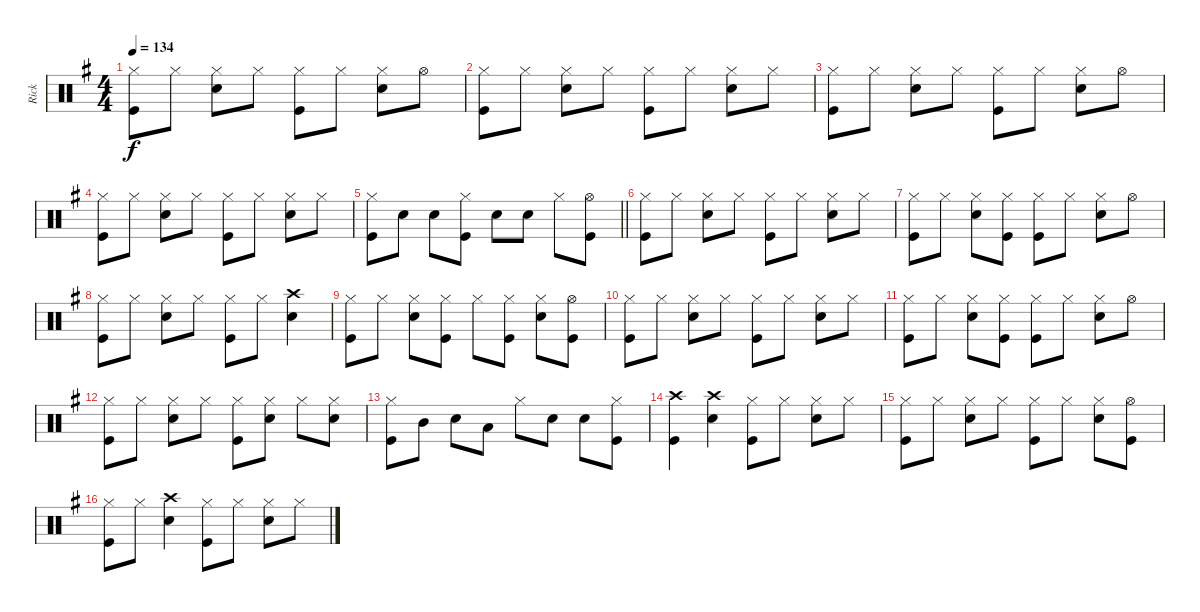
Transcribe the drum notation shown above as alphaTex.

\track ("Rick" "Rick") {instrument percussion}
\staff {score}
\articulation defaults
\ts (4 4)
\tempo 134
\clef neutral
\ks g
("Hi-Hat (closed)" "Kick (hit)").8{dy f} "Hi-Hat (closed)".8 ("Hi-Hat (closed)" "Snare (hit) 2").8 "Hi-Hat (closed)".8 ("Hi-Hat (closed)" "Kick (hit)").8 "Hi-Hat (closed)".8 ("Hi-Hat (closed)" "Snare (hit) 2").8 "Hi-Hat (open)".8 |
("Hi-Hat (closed)" "Kick (hit)").8 "Hi-Hat (closed)".8 ("Hi-Hat (closed)" "Snare (hit) 2").8 "Hi-Hat (closed)".8 ("Hi-Hat (closed)" "Kick (hit)").8 "Hi-Hat (closed)".8 ("Hi-Hat (closed)" "Snare (hit) 2").8 "Hi-Hat (closed)".8 |
("Hi-Hat (closed)" "Kick (hit)").8 "Hi-Hat (closed)".8 ("Hi-Hat (closed)" "Snare (hit) 2").8 "Hi-Hat (closed)".8 ("Hi-Hat (closed)" "Kick (hit)").8 "Hi-Hat (closed)".8 ("Hi-Hat (closed)" "Snare (hit) 2").8 "Hi-Hat (open)".8 |
("Hi-Hat (closed)" "Kick (hit)").8 "Hi-Hat (closed)".8 ("Hi-Hat (closed)" "Snare (hit) 2").8 "Hi-Hat (closed)".8 ("Hi-Hat (closed)" "Kick (hit)").8 "Hi-Hat (closed)".8 ("Hi-Hat (closed)" "Snare (hit) 2").8 "Hi-Hat (closed)".8 |
\barLineRight lightlight
("Hi-Hat (closed)" "Kick (hit)").8 "Snare (hit) 2".8 "Snare (hit) 2".8 ("Hi-Hat (closed)" "Kick (hit)").8 "Snare (hit) 2".8 "Snare (hit) 2".8 "Hi-Hat (closed)".8 ("Hi-Hat (open)" "Kick (hit)").8 |
("Hi-Hat (closed)" "Kick (hit)").8 "Hi-Hat (closed)".8 ("Hi-Hat (closed)" "Snare (hit) 2").8 "Hi-Hat (closed)".8 ("Hi-Hat (closed)" "Kick (hit)").8 "Hi-Hat (closed)".8 ("Hi-Hat (closed)" "Snare (hit) 2").8 "Hi-Hat (closed)".8 |
("Hi-Hat (closed)" "Kick (hit)").8 "Hi-Hat (closed)".8 ("Hi-Hat (closed)" "Snare (hit) 2").8 ("Hi-Hat (closed)" "Kick (hit)").8 ("Hi-Hat (closed)" "Kick (hit)").8 "Hi-Hat (closed)".8 ("Hi-Hat (closed)" "Snare (hit) 2").8 "Hi-Hat (open)".8 |
("Hi-Hat (closed)" "Kick (hit)").8 "Hi-Hat (closed)".8 ("Hi-Hat (closed)" "Snare (hit) 2").8 "Hi-Hat (closed)".8 ("Hi-Hat (closed)" "Kick (hit)").8 "Hi-Hat (closed)".8 ("Crash high (hit)" "Snare (hit) 2").4 |
("Hi-Hat (closed)" "Kick (hit)").8 "Hi-Hat (closed)".8 ("Hi-Hat (closed)" "Snare (hit) 2").8 ("Hi-Hat (closed)" "Kick (hit)").8 "Hi-Hat (closed)".8 ("Hi-Hat (closed)" "Kick (hit)").8 ("Hi-Hat (closed)" "Snare (hit) 2").8 ("Hi-Hat (open)" "Kick (hit)").8 |
("Hi-Hat (closed)" "Kick (hit)").8 "Hi-Hat (closed)".8 ("Hi-Hat (closed)" "Snare (hit) 2").8 "Hi-Hat (closed)".8 ("Hi-Hat (closed)" "Kick (hit)").8 "Hi-Hat (closed)".8 ("Hi-Hat (closed)" "Snare (hit) 2").8 "Hi-Hat (closed)".8 |
("Hi-Hat (closed)" "Kick (hit)").8 "Hi-Hat (closed)".8 ("Hi-Hat (closed)" "Snare (hit) 2").8 ("Hi-Hat (closed)" "Kick (hit)").8 ("Hi-Hat (closed)" "Kick (hit)").8 "Hi-Hat (closed)".8 ("Hi-Hat (closed)" "Snare (hit) 2").8 "Hi-Hat (open)".8 |
("Hi-Hat (closed)" "Kick (hit)").8 "Hi-Hat (closed)".8 ("Hi-Hat (closed)" "Snare (hit) 2").8 "Hi-Hat (closed)".8 ("Hi-Hat (closed)" "Kick (hit)").8 ("Hi-Hat (closed)" "Snare (hit) 2").8 "Hi-Hat (closed)".8 ("Hi-Hat (closed)" "Snare (hit) 2").8 |
("Hi-Hat (closed)" "Kick (hit)").8 "Mid Tom (hit)".8 "Snare (hit) 2".8 "Low Tom (hit)".8 "Hi-Hat (closed)".8 "Snare (hit) 2".8 "Snare (hit) 2".8 ("Hi-Hat (closed)" "Kick (hit)").8 |
("Crash high (hit)" "Kick (hit)").4 ("Crash high (hit)" "Snare (hit) 2").4 ("Hi-Hat (closed)" "Kick (hit)").8 "Hi-Hat (closed)".8 ("Hi-Hat (closed)" "Snare (hit) 2").8 "Hi-Hat (closed)".8 |
("Hi-Hat (closed)" "Kick (hit)").8 "Hi-Hat (closed)".8 ("Hi-Hat (closed)" "Snare (hit) 2").8 "Hi-Hat (closed)".8 ("Hi-Hat (closed)" "Kick (hit)").8 "Hi-Hat (closed)".8 ("Hi-Hat (closed)" "Snare (hit) 2").8 ("Hi-Hat (open)" "Kick (hit)").8 |
("Hi-Hat (closed)" "Kick (hit)").8 "Hi-Hat (closed)".8 ("Crash high (hit)" "Snare (hit) 2").4 ("Hi-Hat (closed)" "Kick (hit)").8 "Hi-Hat (closed)".8 ("Hi-Hat (closed)" "Snare (hit) 2").8 "Hi-Hat (closed)".8
